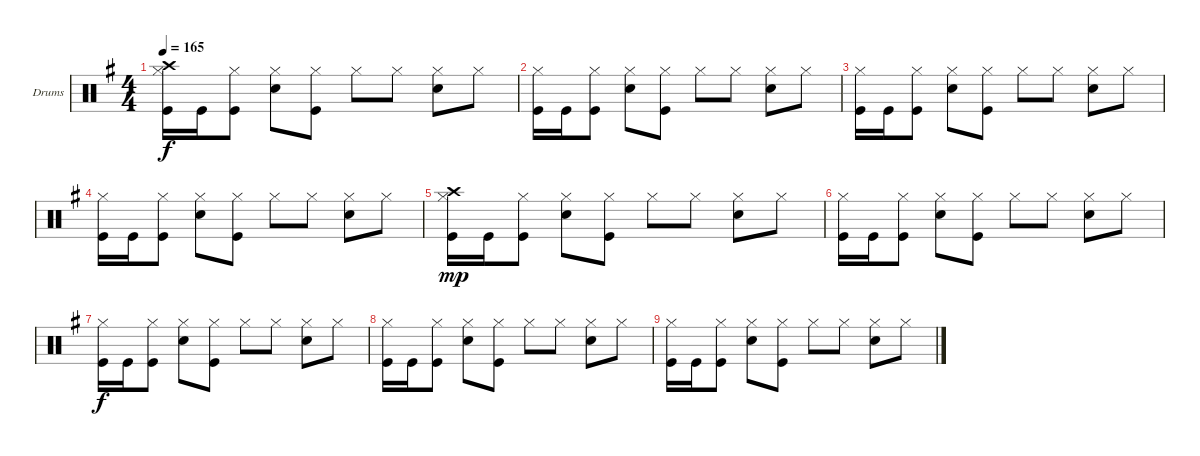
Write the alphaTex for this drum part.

\defaultSystemsLayout 4
\bracketExtendMode groupsimilarinstruments
\firstSystemTrackNameOrientation horizontal
\otherSystemsTrackNameOrientation horizontal
\track ("Drumkit" "Drums") {instrument percussion}
\staff {score}
\articulation defaults
\ts (4 4)
\tempo 165
\clef neutral
\scale
1.04288
\ks g
("Crash high (hit)" "Hi-Hat (closed)" "Kick (hit)").16{dy f} "Kick (hit)".16 ("Hi-Hat (closed)" "Kick (hit)").8 ("Hi-Hat (closed)" "Snare (hit) 2").8 ("Hi-Hat (closed)" "Kick (hit)").8 "Hi-Hat (closed)".8 "Hi-Hat (closed)".8 ("Hi-Hat (closed)" "Snare (hit) 2").8 "Hi-Hat (closed)".8 |
\scale
0.957125 ("Hi-Hat (closed)" "Kick (hit)").16 "Kick (hit)".16 ("Hi-Hat (closed)" "Kick (hit)").8 ("Hi-Hat (closed)" "Snare (hit) 2").8 ("Hi-Hat (closed)" "Kick (hit)").8 "Hi-Hat (closed)".8 "Hi-Hat (closed)".8 ("Hi-Hat (closed)" "Snare (hit) 2").8 "Hi-Hat (closed)".8 |
\scale
1.04288 ("Hi-Hat (closed)" "Kick (hit)").16 "Kick (hit)".16 ("Hi-Hat (closed)" "Kick (hit)").8 ("Hi-Hat (closed)" "Snare (hit) 2").8 ("Hi-Hat (closed)" "Kick (hit)").8 "Hi-Hat (closed)".8 "Hi-Hat (closed)".8 ("Hi-Hat (closed)" "Snare (hit) 2").8 "Hi-Hat (closed)".8 |
\scale
0.957125 ("Hi-Hat (closed)" "Kick (hit)").16 "Kick (hit)".16 ("Hi-Hat (closed)" "Kick (hit)").8 ("Hi-Hat (closed)" "Snare (hit) 2").8 ("Hi-Hat (closed)" "Kick (hit)").8 "Hi-Hat (closed)".8 "Hi-Hat (closed)".8 ("Hi-Hat (closed)" "Snare (hit) 2").8 "Hi-Hat (closed)".8 |
\scale
1.04288 ("Crash high (hit)" "Hi-Hat (closed)" "Kick (hit)").16{dy mp} "Kick (hit)".16 ("Hi-Hat (closed)" "Kick (hit)").8 ("Hi-Hat (closed)" "Snare (hit) 2").8 ("Hi-Hat (closed)" "Kick (hit)").8 "Hi-Hat (closed)".8 "Hi-Hat (closed)".8 ("Hi-Hat (closed)" "Snare (hit) 2").8 "Hi-Hat (closed)".8 |
\scale
0.957125 ("Hi-Hat (closed)" "Kick (hit)").16 "Kick (hit)".16 ("Hi-Hat (closed)" "Kick (hit)").8 ("Hi-Hat (closed)" "Snare (hit) 2").8 ("Hi-Hat (closed)" "Kick (hit)").8 "Hi-Hat (closed)".8 "Hi-Hat (closed)".8 ("Hi-Hat (closed)" "Snare (hit) 2").8 "Hi-Hat (closed)".8 |
\scale
1.04288 ("Hi-Hat (closed)" "Kick (hit)").16{dy f} "Kick (hit)".16 ("Hi-Hat (closed)" "Kick (hit)").8 ("Hi-Hat (closed)" "Snare (hit) 2").8 ("Hi-Hat (closed)" "Kick (hit)").8 "Hi-Hat (closed)".8 "Hi-Hat (closed)".8 ("Hi-Hat (closed)" "Snare (hit) 2").8 "Hi-Hat (closed)".8 |
\scale
0.957125 ("Hi-Hat (closed)" "Kick (hit)").16 "Kick (hit)".16 ("Hi-Hat (closed)" "Kick (hit)").8 ("Hi-Hat (closed)" "Snare (hit) 2").8 ("Hi-Hat (closed)" "Kick (hit)").8 "Hi-Hat (closed)".8 "Hi-Hat (closed)".8 ("Hi-Hat (closed)" "Snare (hit) 2").8 "Hi-Hat (closed)".8 |
("Hi-Hat (closed)" "Kick (hit)").16 "Kick (hit)".16 ("Hi-Hat (closed)" "Kick (hit)").8 ("Hi-Hat (closed)" "Snare (hit) 2").8 ("Hi-Hat (closed)" "Kick (hit)").8 "Hi-Hat (closed)".8 "Hi-Hat (closed)".8 ("Hi-Hat (closed)" "Snare (hit) 2").8 "Hi-Hat (closed)".8
